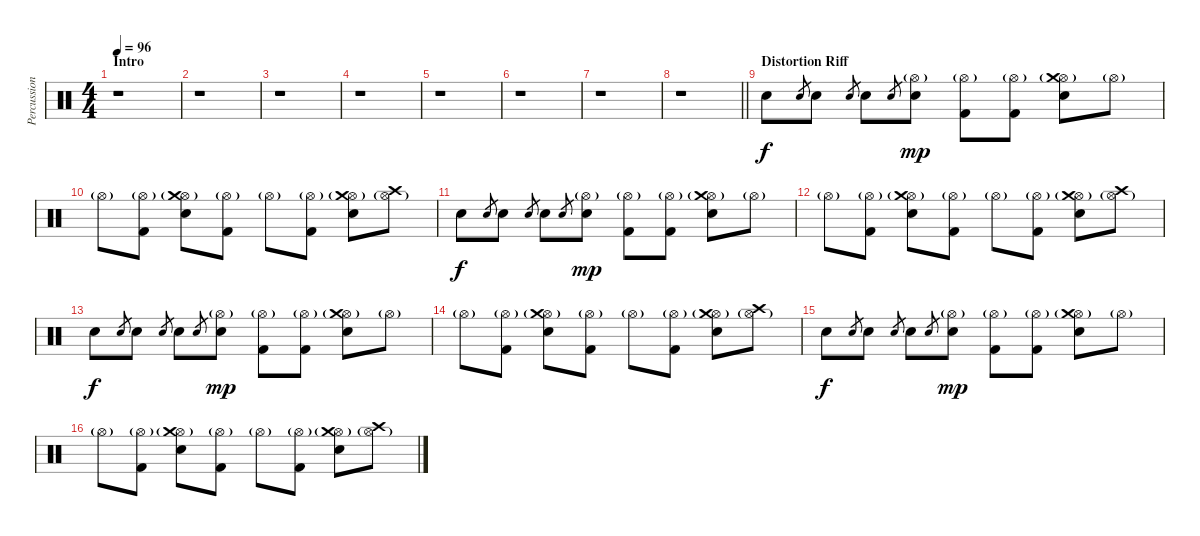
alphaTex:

\track ("Percussion" "Percussion") {instrument percussion}
\staff {score}
\articulation defaults
\ts (4 4)
\section ("" "Intro")
\tempo 96
\clef neutral
\ks c
r.1{dy f} |
r.1 |
r.1 |
r.1 |
r.1 |
r.1 |
r.1 |
\barLineRight lightlight
r.1 |
\section ("" "Distortion Riff")
"Electric Snare (hit)".8 "Electric Snare (hit)".8{gr} "Electric Snare (hit)".8 "Electric Snare (hit)".8{gr} "Electric Snare (hit)".8 "Electric Snare (hit)".8{gr} ("Hi-Hat (open)"{g} "Electric Snare (hit)").8{dy mp} ("Hi-Hat (open)"{g} "Kick (hit) 2").8 ("Hi-Hat (open)"{g} "Kick (hit) 2").8 ("Hi-Hat (open)"{g} "Crash medium (hit)" "Electric Snare (hit)").8 "Hi-Hat (open)"{g}.8 |
"Hi-Hat (open)"{g}.8 ("Hi-Hat (open)"{g} "Kick (hit) 2").8 ("Hi-Hat (open)"{g} "Crash medium (hit)" "Electric Snare (hit)").8 ("Hi-Hat (open)"{g} "Kick (hit) 2").8 "Hi-Hat (open)"{g}.8 ("Hi-Hat (open)"{g} "Kick (hit) 2").8 ("Hi-Hat (open)"{g} "Crash medium (hit)" "Electric Snare (hit)").8 ("Hi-Hat (open)"{g} "Crash high (hit)").8 |
"Electric Snare (hit)".8{dy f} "Electric Snare (hit)".8{gr} "Electric Snare (hit)".8 "Electric Snare (hit)".8{gr} "Electric Snare (hit)".8 "Electric Snare (hit)".8{gr} ("Hi-Hat (open)"{g} "Electric Snare (hit)").8{dy mp} ("Hi-Hat (open)"{g} "Kick (hit) 2").8 ("Hi-Hat (open)"{g} "Kick (hit) 2").8 ("Hi-Hat (open)"{g} "Crash medium (hit)" "Electric Snare (hit)").8 "Hi-Hat (open)"{g}.8 |
"Hi-Hat (open)"{g}.8 ("Hi-Hat (open)"{g} "Kick (hit) 2").8 ("Hi-Hat (open)"{g} "Crash medium (hit)" "Electric Snare (hit)").8 ("Hi-Hat (open)"{g} "Kick (hit) 2").8 "Hi-Hat (open)"{g}.8 ("Hi-Hat (open)"{g} "Kick (hit) 2").8 ("Hi-Hat (open)"{g} "Crash medium (hit)" "Electric Snare (hit)").8 ("Hi-Hat (open)"{g} "Crash high (hit)").8 |
"Electric Snare (hit)".8{dy f} "Electric Snare (hit)".8{gr} "Electric Snare (hit)".8 "Electric Snare (hit)".8{gr} "Electric Snare (hit)".8 "Electric Snare (hit)".8{gr} ("Hi-Hat (open)"{g} "Electric Snare (hit)").8{dy mp} ("Hi-Hat (open)"{g} "Kick (hit) 2").8 ("Hi-Hat (open)"{g} "Kick (hit) 2").8 ("Hi-Hat (open)"{g} "Crash medium (hit)" "Electric Snare (hit)").8 "Hi-Hat (open)"{g}.8 |
"Hi-Hat (open)"{g}.8 ("Hi-Hat (open)"{g} "Kick (hit) 2").8 ("Hi-Hat (open)"{g} "Crash medium (hit)" "Electric Snare (hit)").8 ("Hi-Hat (open)"{g} "Kick (hit) 2").8 "Hi-Hat (open)"{g}.8 ("Hi-Hat (open)"{g} "Kick (hit) 2").8 ("Hi-Hat (open)"{g} "Crash medium (hit)" "Electric Snare (hit)").8 ("Hi-Hat (open)"{g} "Crash high (hit)").8 |
"Electric Snare (hit)".8{dy f} "Electric Snare (hit)".8{gr} "Electric Snare (hit)".8 "Electric Snare (hit)".8{gr} "Electric Snare (hit)".8 "Electric Snare (hit)".8{gr} ("Hi-Hat (open)"{g} "Electric Snare (hit)").8{dy mp} ("Hi-Hat (open)"{g} "Kick (hit) 2").8 ("Hi-Hat (open)"{g} "Kick (hit) 2").8 ("Hi-Hat (open)"{g} "Crash medium (hit)" "Electric Snare (hit)").8 "Hi-Hat (open)"{g}.8 |
"Hi-Hat (open)"{g}.8 ("Hi-Hat (open)"{g} "Kick (hit) 2").8 ("Hi-Hat (open)"{g} "Crash medium (hit)" "Electric Snare (hit)").8 ("Hi-Hat (open)"{g} "Kick (hit) 2").8 "Hi-Hat (open)"{g}.8 ("Hi-Hat (open)"{g} "Kick (hit) 2").8 ("Hi-Hat (open)"{g} "Crash medium (hit)" "Electric Snare (hit)").8 ("Hi-Hat (open)"{g} "Crash high (hit)").8
